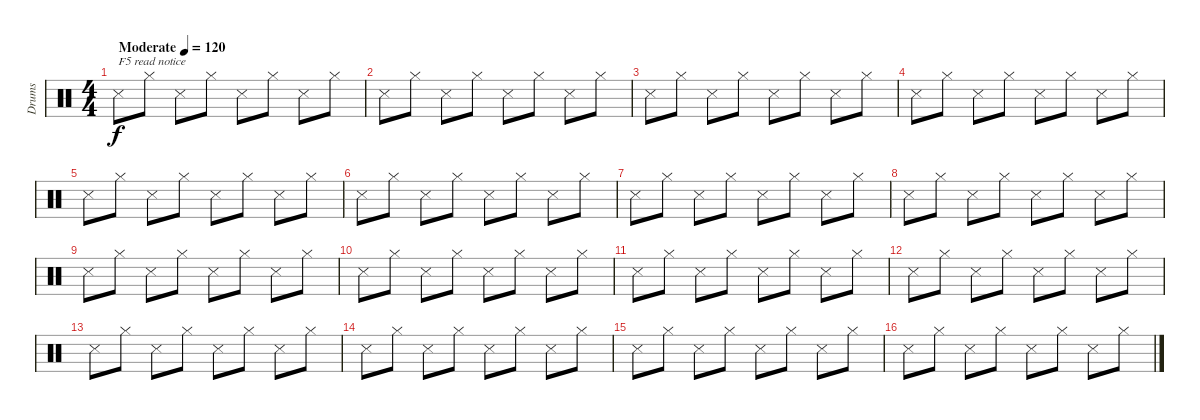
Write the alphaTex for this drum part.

\track ("Drums" "Drums") {instrument percussion}
\staff {score}
\articulation defaults
\ts (4 4)
\tempo (120 "Moderate")
\clef neutral
\ks c "Snare (side stick) 3".8{txt "F5 read notice" dy f} "Hi-Hat (closed)".8 "Snare (side stick) 3".8 "Hi-Hat (closed)".8 "Snare (side stick) 3".8 "Hi-Hat (closed)".8 "Snare (side stick) 3".8 "Hi-Hat (closed)".8
|
"Snare (side stick) 3".8 "Hi-Hat (closed)".8 "Snare (side stick) 3".8 "Hi-Hat (closed)".8 "Snare (side stick) 3".8 "Hi-Hat (closed)".8 "Snare (side stick) 3".8 "Hi-Hat (closed)".8 |
"Snare (side stick) 3".8 "Hi-Hat (closed)".8 "Snare (side stick) 3".8 "Hi-Hat (closed)".8 "Snare (side stick) 3".8 "Hi-Hat (closed)".8 "Snare (side stick) 3".8 "Hi-Hat (closed)".8 |
"Snare (side stick) 3".8 "Hi-Hat (closed)".8 "Snare (side stick) 3".8 "Hi-Hat (closed)".8 "Snare (side stick) 3".8 "Hi-Hat (closed)".8 "Snare (side stick) 3".8 "Hi-Hat (closed)".8 |
"Snare (side stick) 3".8 "Hi-Hat (closed)".8 "Snare (side stick) 3".8 "Hi-Hat (closed)".8 "Snare (side stick) 3".8 "Hi-Hat (closed)".8 "Snare (side stick) 3".8 "Hi-Hat (closed)".8 |
"Snare (side stick) 3".8 "Hi-Hat (closed)".8 "Snare (side stick) 3".8 "Hi-Hat (closed)".8 "Snare (side stick) 3".8 "Hi-Hat (closed)".8 "Snare (side stick) 3".8 "Hi-Hat (closed)".8 |
"Snare (side stick) 3".8 "Hi-Hat (closed)".8 "Snare (side stick) 3".8 "Hi-Hat (closed)".8 "Snare (side stick) 3".8 "Hi-Hat (closed)".8 "Snare (side stick) 3".8 "Hi-Hat (closed)".8 |
"Snare (side stick) 3".8 "Hi-Hat (closed)".8 "Snare (side stick) 3".8 "Hi-Hat (closed)".8 "Snare (side stick) 3".8 "Hi-Hat (closed)".8 "Snare (side stick) 3".8 "Hi-Hat (closed)".8 |
"Snare (side stick) 3".8 "Hi-Hat (closed)".8 "Snare (side stick) 3".8 "Hi-Hat (closed)".8 "Snare (side stick) 3".8 "Hi-Hat (closed)".8 "Snare (side stick) 3".8 "Hi-Hat (closed)".8 |
"Snare (side stick) 3".8 "Hi-Hat (closed)".8 "Snare (side stick) 3".8 "Hi-Hat (closed)".8 "Snare (side stick) 3".8 "Hi-Hat (closed)".8 "Snare (side stick) 3".8 "Hi-Hat (closed)".8 |
"Snare (side stick) 3".8 "Hi-Hat (closed)".8 "Snare (side stick) 3".8 "Hi-Hat (closed)".8 "Snare (side stick) 3".8 "Hi-Hat (closed)".8 "Snare (side stick) 3".8 "Hi-Hat (closed)".8 |
"Snare (side stick) 3".8 "Hi-Hat (closed)".8 "Snare (side stick) 3".8 "Hi-Hat (closed)".8 "Snare (side stick) 3".8 "Hi-Hat (closed)".8 "Snare (side stick) 3".8 "Hi-Hat (closed)".8 |
"Snare (side stick) 3".8 "Hi-Hat (closed)".8 "Snare (side stick) 3".8 "Hi-Hat (closed)".8 "Snare (side stick) 3".8 "Hi-Hat (closed)".8 "Snare (side stick) 3".8 "Hi-Hat (closed)".8 |
"Snare (side stick) 3".8 "Hi-Hat (closed)".8 "Snare (side stick) 3".8 "Hi-Hat (closed)".8 "Snare (side stick) 3".8 "Hi-Hat (closed)".8 "Snare (side stick) 3".8 "Hi-Hat (closed)".8 |
"Snare (side stick) 3".8 "Hi-Hat (closed)".8 "Snare (side stick) 3".8 "Hi-Hat (closed)".8 "Snare (side stick) 3".8 "Hi-Hat (closed)".8 "Snare (side stick) 3".8 "Hi-Hat (closed)".8 |
"Snare (side stick) 3".8 "Hi-Hat (closed)".8 "Snare (side stick) 3".8 "Hi-Hat (closed)".8 "Snare (side stick) 3".8 "Hi-Hat (closed)".8 "Snare (side stick) 3".8 "Hi-Hat (closed)".8
